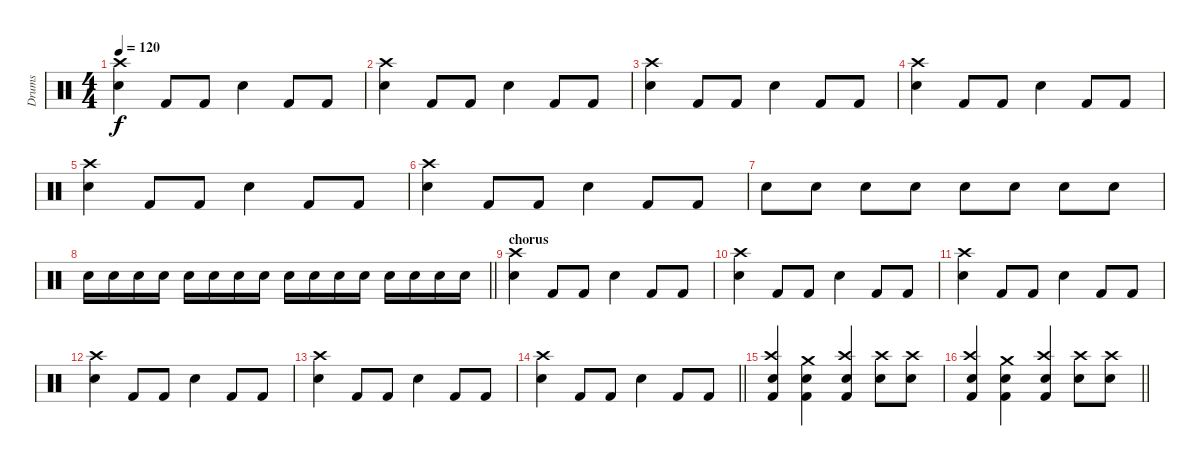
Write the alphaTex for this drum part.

\track ("Drums" "Drums") {instrument percussion}
\staff {score}
\articulation defaults
\ts (4 4)
\tempo 120
\clef neutral
\ks c
("Electric Snare (hit)" "Crash high (hit)").4{dy f} "Kick (hit) 2".8 "Kick (hit) 2".8 "Electric Snare (hit)".4 "Kick (hit) 2".8 "Kick (hit) 2".8 |
("Electric Snare (hit)" "Crash high (hit)").4 "Kick (hit) 2".8 "Kick (hit) 2".8 "Electric Snare (hit)".4 "Kick (hit) 2".8 "Kick (hit) 2".8 |
("Electric Snare (hit)" "Crash high (hit)").4 "Kick (hit) 2".8 "Kick (hit) 2".8 "Electric Snare (hit)".4 "Kick (hit) 2".8 "Kick (hit) 2".8 |
("Electric Snare (hit)" "Crash high (hit)").4 "Kick (hit) 2".8 "Kick (hit) 2".8 "Electric Snare (hit)".4 "Kick (hit) 2".8 "Kick (hit) 2".8 |
("Electric Snare (hit)" "Crash high (hit)").4 "Kick (hit) 2".8 "Kick (hit) 2".8 "Electric Snare (hit)".4 "Kick (hit) 2".8 "Kick (hit) 2".8 |
("Electric Snare (hit)" "Crash high (hit)").4 "Kick (hit) 2".8 "Kick (hit) 2".8 "Electric Snare (hit)".4 "Kick (hit) 2".8 "Kick (hit) 2".8 |
"Electric Snare (hit)".8 "Electric Snare (hit)".8 "Electric Snare (hit)".8 "Electric Snare (hit)".8 "Electric Snare (hit)".8 "Electric Snare (hit)".8 "Electric Snare (hit)".8 "Electric Snare (hit)".8 |
\barLineRight lightlight "Electric Snare (hit)".16 "Electric Snare (hit)".16 "Electric Snare (hit)".16 "Electric Snare (hit)".16 "Electric Snare (hit)".16 "Electric Snare (hit)".16 "Electric Snare (hit)".16 "Electric Snare (hit)".16 "Electric Snare (hit)".16 "Electric Snare (hit)".16 "Electric Snare (hit)".16 "Electric Snare (hit)".16 "Electric Snare (hit)".16 "Electric Snare (hit)".16 "Electric Snare (hit)".16 "Electric Snare (hit)".16
|
\section ("" "chorus")
("Electric Snare (hit)" "Crash high (hit)").4 "Kick (hit) 2".8 "Kick (hit) 2".8 "Electric Snare (hit)".4 "Kick (hit) 2".8 "Kick (hit) 2".8 |
("Electric Snare (hit)" "Crash high (hit)").4 "Kick (hit) 2".8 "Kick (hit) 2".8 "Electric Snare (hit)".4 "Kick (hit) 2".8 "Kick (hit) 2".8 |
("Electric Snare (hit)" "Crash high (hit)").4 "Kick (hit) 2".8 "Kick (hit) 2".8 "Electric Snare (hit)".4 "Kick (hit) 2".8 "Kick (hit) 2".8 |
("Electric Snare (hit)" "Crash high (hit)").4 "Kick (hit) 2".8 "Kick (hit) 2".8 "Electric Snare (hit)".4 "Kick (hit) 2".8 "Kick (hit) 2".8 |
("Electric Snare (hit)" "Crash high (hit)").4 "Kick (hit) 2".8 "Kick (hit) 2".8 "Electric Snare (hit)".4 "Kick (hit) 2".8 "Kick (hit) 2".8 |
\barLineRight lightlight
("Electric Snare (hit)" "Crash high (hit)").4 "Kick (hit) 2".8 "Kick (hit) 2".8 "Electric Snare (hit)".4 "Kick (hit) 2".8 "Kick (hit) 2".8 |
("Electric Snare (hit)" "Kick (hit) 2" "Crash high (hit)").4 ("Electric Snare (hit)" "Kick (hit) 2" "Crash medium (hit)").4 ("Electric Snare (hit)" "Kick (hit) 2" "Crash high (hit)").4 ("Electric Snare (hit)" "Crash high (hit)").8 ("Electric Snare (hit)" "Crash high (hit)").8 |
\barLineRight lightlight
("Electric Snare (hit)" "Kick (hit) 2" "Crash high (hit)").4 ("Electric Snare (hit)" "Kick (hit) 2" "Crash medium (hit)").4 ("Electric Snare (hit)" "Kick (hit) 2" "Crash high (hit)").4 ("Electric Snare (hit)" "Crash high (hit)").8 ("Electric Snare (hit)" "Crash high (hit)").8
